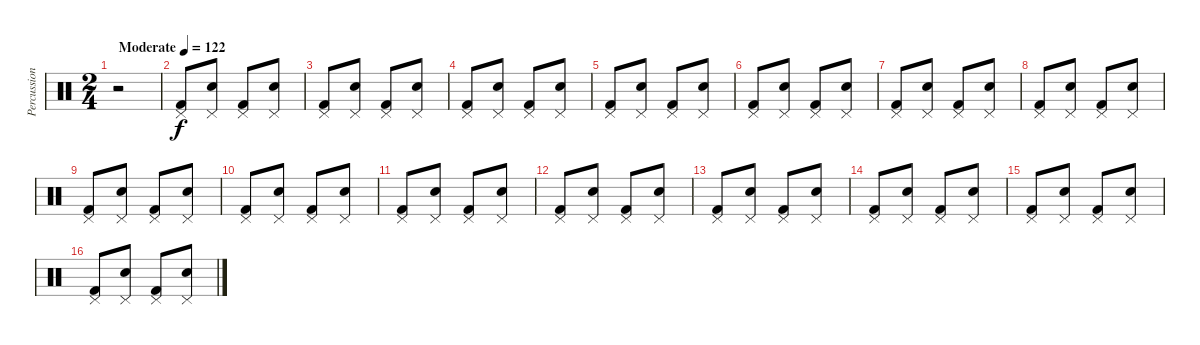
\track ("Percussion" "Percussion") {instrument percussion}
\staff {score}
\articulation defaults
\ts (2 4)
\tempo (122 "Moderate")
\clef neutral
\ks c
r.2{dy f} |
("Pedal Hi-Hat (hit)" "Kick (hit) 2").8 ("Pedal Hi-Hat (hit)" "Snare (hit) 2").8 ("Pedal Hi-Hat (hit)" "Kick (hit) 2").8 ("Pedal Hi-Hat (hit)" "Snare (hit) 2").8 |
("Pedal Hi-Hat (hit)" "Kick (hit) 2").8 ("Pedal Hi-Hat (hit)" "Snare (hit) 2").8 ("Pedal Hi-Hat (hit)" "Kick (hit) 2").8 ("Pedal Hi-Hat (hit)" "Snare (hit) 2").8 |
("Pedal Hi-Hat (hit)" "Kick (hit) 2").8 ("Pedal Hi-Hat (hit)" "Snare (hit) 2").8 ("Pedal Hi-Hat (hit)" "Kick (hit) 2").8 ("Pedal Hi-Hat (hit)" "Snare (hit) 2").8 |
("Pedal Hi-Hat (hit)" "Kick (hit) 2").8 ("Pedal Hi-Hat (hit)" "Snare (hit) 2").8 ("Pedal Hi-Hat (hit)" "Kick (hit) 2").8 ("Pedal Hi-Hat (hit)" "Snare (hit) 2").8 |
("Pedal Hi-Hat (hit)" "Kick (hit) 2").8 ("Pedal Hi-Hat (hit)" "Snare (hit) 2").8 ("Pedal Hi-Hat (hit)" "Kick (hit) 2").8 ("Pedal Hi-Hat (hit)" "Snare (hit) 2").8 |
("Pedal Hi-Hat (hit)" "Kick (hit) 2").8 ("Pedal Hi-Hat (hit)" "Snare (hit) 2").8 ("Pedal Hi-Hat (hit)" "Kick (hit) 2").8 ("Pedal Hi-Hat (hit)" "Snare (hit) 2").8 |
("Pedal Hi-Hat (hit)" "Kick (hit) 2").8 ("Pedal Hi-Hat (hit)" "Snare (hit) 2").8 ("Pedal Hi-Hat (hit)" "Kick (hit) 2").8 ("Pedal Hi-Hat (hit)" "Snare (hit) 2").8 |
("Pedal Hi-Hat (hit)" "Kick (hit) 2").8 ("Pedal Hi-Hat (hit)" "Snare (hit) 2").8 ("Pedal Hi-Hat (hit)" "Kick (hit) 2").8 ("Pedal Hi-Hat (hit)" "Snare (hit) 2").8 |
("Pedal Hi-Hat (hit)" "Kick (hit) 2").8 ("Pedal Hi-Hat (hit)" "Snare (hit) 2").8 ("Pedal Hi-Hat (hit)" "Kick (hit) 2").8 ("Pedal Hi-Hat (hit)" "Snare (hit) 2").8 |
("Pedal Hi-Hat (hit)" "Kick (hit) 2").8 ("Pedal Hi-Hat (hit)" "Snare (hit) 2").8 ("Pedal Hi-Hat (hit)" "Kick (hit) 2").8 ("Pedal Hi-Hat (hit)" "Snare (hit) 2").8 |
("Pedal Hi-Hat (hit)" "Kick (hit) 2").8 ("Pedal Hi-Hat (hit)" "Snare (hit) 2").8 ("Pedal Hi-Hat (hit)" "Kick (hit) 2").8 ("Pedal Hi-Hat (hit)" "Snare (hit) 2").8 |
("Pedal Hi-Hat (hit)" "Kick (hit) 2").8 ("Pedal Hi-Hat (hit)" "Snare (hit) 2").8 ("Pedal Hi-Hat (hit)" "Kick (hit) 2").8 ("Pedal Hi-Hat (hit)" "Snare (hit) 2").8 |
("Pedal Hi-Hat (hit)" "Kick (hit) 2").8 ("Pedal Hi-Hat (hit)" "Snare (hit) 2").8 ("Pedal Hi-Hat (hit)" "Kick (hit) 2").8 ("Pedal Hi-Hat (hit)" "Snare (hit) 2").8 |
("Pedal Hi-Hat (hit)" "Kick (hit) 2").8 ("Pedal Hi-Hat (hit)" "Snare (hit) 2").8 ("Pedal Hi-Hat (hit)" "Kick (hit) 2").8 ("Pedal Hi-Hat (hit)" "Snare (hit) 2").8 |
("Pedal Hi-Hat (hit)" "Kick (hit) 2").8 ("Pedal Hi-Hat (hit)" "Snare (hit) 2").8 ("Pedal Hi-Hat (hit)" "Kick (hit) 2").8 ("Pedal Hi-Hat (hit)" "Snare (hit) 2").8
